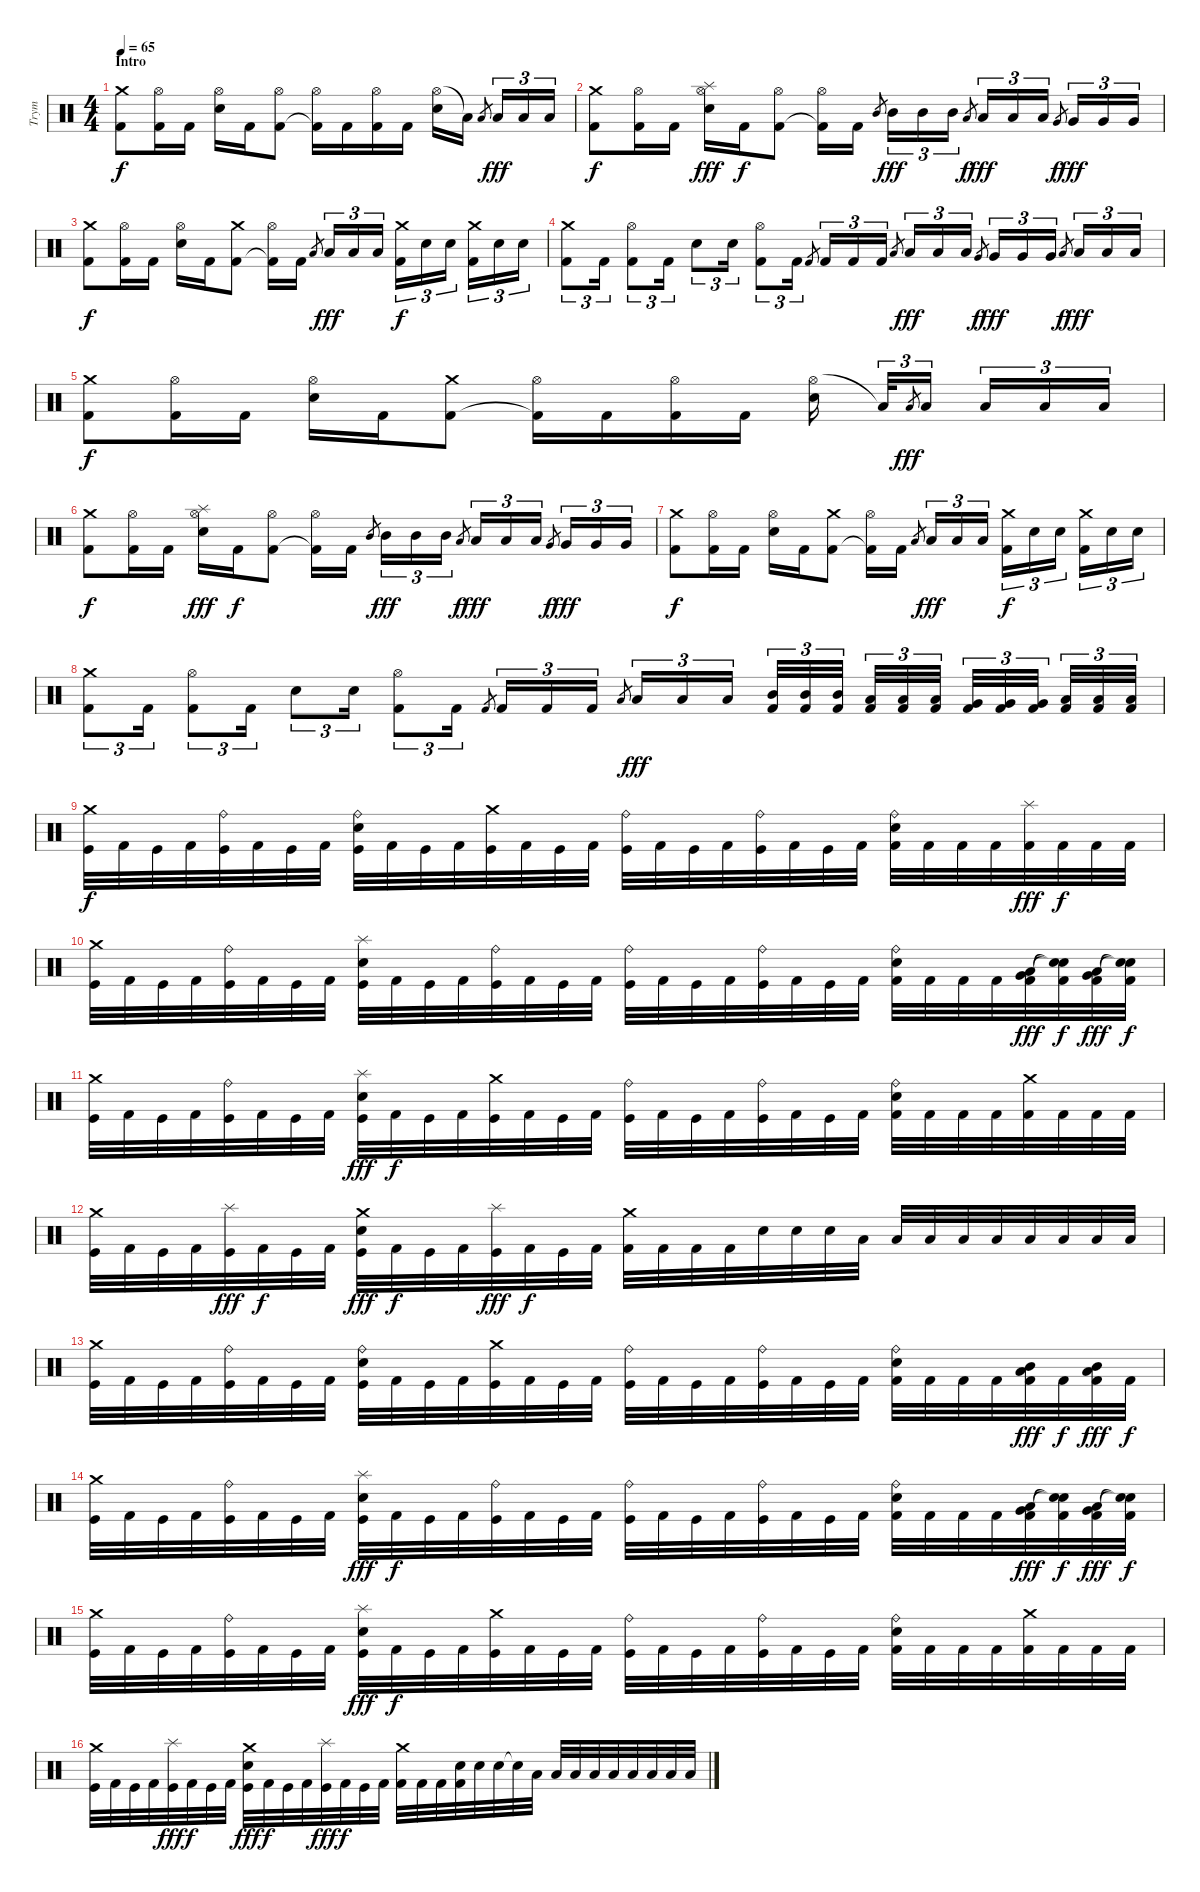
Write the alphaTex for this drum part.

\track ("Trym" "Trym") {instrument percussion}
\staff {score}
\articulation defaults
\ts (4 4)
\section ("" "Intro")
\tempo 65
\clef neutral
\ks c
("Crash medium (hit)" "Kick (hit) 2").8{dy f} ("Hi-Hat (open)" "Kick (hit) 2").16 "Kick (hit) 2".16 ("Hi-Hat (open)" "Electric Snare (hit)").16 "Kick (hit) 2".16 ("Hi-Hat (open)" "Kick (hit) 2").8 ("Hi-Hat (open)" "Kick (hit) 2"{t}).16 "Kick (hit) 2".16 ("Hi-Hat (open)" "Kick (hit) 2").16 "Kick (hit) 2".16 ("Hi-Hat (open)" "Electric Snare (hit)").16 "Low Tom (hit)"{t}.16 "Low Tom (hit)".8{gr} "Low Tom (hit)".16{tu (3 2) dy fff} "Low Tom (hit)".16{tu (3 2)} "Low Tom (hit)".16{tu (3 2)} |
("Crash medium (hit)" "Kick (hit) 2").8{dy f} ("Hi-Hat (open)" "Kick (hit) 2").16 "Kick (hit) 2".16 ("Splash (hit)" "Hi-Hat (open)" "Electric Snare (hit)").16{dy fff} "Kick (hit) 2".16{dy f} ("Hi-Hat (open)" "Kick (hit) 2").8 ("Hi-Hat (open)" "Kick (hit) 2"{t}).16 "Kick (hit) 2".16 "Mid Tom (hit)".8{gr} "Mid Tom (hit)".16{tu (3 2) dy fff} "Mid Tom (hit)".16{tu (3 2)} "Mid Tom (hit)".16{tu (3 2)} "Low Tom (hit)".8{gr dy f} "Low Tom (hit)".16{tu (3 2) dy fff} "Low Tom (hit)".16{tu (3 2)} "Low Tom (hit)".16{tu (3 2)} "Very Low Tom (hit)".8{gr dy f} "Very Low Tom (hit)".16{tu (3 2) dy fff} "Very Low Tom (hit)".16{tu (3 2)} "Very Low Tom (hit)".16{tu (3 2)} |
("Crash medium (hit)" "Kick (hit) 2").8{dy f} ("Hi-Hat (open)" "Kick (hit) 2").16 "Kick (hit) 2".16 ("Hi-Hat (open)" "Electric Snare (hit)").16 "Kick (hit) 2".16 ("Crash medium (hit)" "Kick (hit) 2").8 ("Hi-Hat (open)" "Kick (hit) 2"{t}).16 "Kick (hit) 2".16 "Low Tom (hit)".8{gr} "Low Tom (hit)".16{tu (3 2) dy fff} "Low Tom (hit)".16{tu (3 2)} "Low Tom (hit)".16{tu (3 2)} ("Crash medium (hit)" "Kick (hit) 2").16{tu (3 2) dy f} "Snare (hit) 2".16{tu (3 2)} "Snare (hit) 2".16{tu (3 2)} ("Crash medium (hit)" "Kick (hit) 2").16{tu (3 2)} "Snare (hit) 2".16{tu (3 2)} "Snare (hit) 2".16{tu (3 2)} |
("Crash medium (hit)" "Kick (hit) 2").8{tu (3 2)} "Kick (hit) 2".16{tu (3 2)} ("Hi-Hat (open)" "Kick (hit) 2").8{tu (3 2)} "Kick (hit) 2".16{tu (3 2)} "Snare (hit) 2".8{tu (3 2)} "Snare (hit) 2".16{tu (3 2)} ("Hi-Hat (open)" "Kick (hit) 2").8{tu (3 2)} "Kick (hit) 2".16{tu (3 2)} "Kick (hit) 2".8{gr} "Kick (hit) 2".16{tu (3 2)} "Kick (hit) 2".16{tu (3 2)} "Kick (hit) 2".16{tu (3 2)} "Low Tom (hit)".8{gr} "Low Tom (hit)".16{tu (3 2) dy fff} "Low Tom (hit)".16{tu (3 2)} "Low Tom (hit)".16{tu (3 2)} "Very Low Tom (hit)".8{gr dy f} "Very Low Tom (hit)".16{tu (3 2) dy fff} "Very Low Tom (hit)".16{tu (3 2)} "Very Low Tom (hit)".16{tu (3 2)} "Low Floor Tom (hit)".8{gr dy f} "Low Floor Tom (hit)".16{tu (3 2) dy fff} "Low Floor Tom (hit)".16{tu (3 2)} "Low Floor Tom (hit)".16{tu (3 2)} |
("Crash medium (hit)" "Kick (hit) 2").8{dy f} ("Hi-Hat (open)" "Kick (hit) 2").16 "Kick (hit) 2".16 ("Hi-Hat (open)" "Electric Snare (hit)").16 "Kick (hit) 2".16 ("Crash medium (hit)" "Kick (hit) 2").8 ("Hi-Hat (open)" "Kick (hit) 2"{t}).16 "Kick (hit) 2".16 ("Hi-Hat (open)" "Kick (hit) 2").16 "Kick (hit) 2".16 ("Hi-Hat (open)" "Electric Snare (hit)").16 "Low Tom (hit)"{t}.32{tu (3 2)} "Low Tom (hit)".8{gr dy fff} "Low Tom (hit)".16{tu (3 2)} "Low Tom (hit)".16{tu (3 2)} "Low Tom (hit)".16{tu (3 2)} "Low Tom (hit)".16{tu (3 2)} |
("Crash medium (hit)" "Kick (hit) 2").8{dy f} ("Hi-Hat (open)" "Kick (hit) 2").16 "Kick (hit) 2".16 ("Splash (hit)" "Hi-Hat (open)" "Electric Snare (hit)").16{dy fff} "Kick (hit) 2".16{dy f} ("Hi-Hat (open)" "Kick (hit) 2").8 ("Hi-Hat (open)" "Kick (hit) 2"{t}).16 "Kick (hit) 2".16 "Mid Tom (hit)".8{gr} "Mid Tom (hit)".16{tu (3 2) dy fff} "Mid Tom (hit)".16{tu (3 2)} "Mid Tom (hit)".16{tu (3 2)} "Low Tom (hit)".8{gr dy f} "Low Tom (hit)".16{tu (3 2) dy fff} "Low Tom (hit)".16{tu (3 2)} "Low Tom (hit)".16{tu (3 2)} "Very Low Tom (hit)".8{gr dy f} "Very Low Tom (hit)".16{tu (3 2) dy fff} "Very Low Tom (hit)".16{tu (3 2)} "Very Low Tom (hit)".16{tu (3 2)} |
("Crash medium (hit)" "Kick (hit) 2").8{dy f} ("Hi-Hat (open)" "Kick (hit) 2").16 "Kick (hit) 2".16 ("Hi-Hat (open)" "Electric Snare (hit)").16 "Kick (hit) 2".16 ("Crash medium (hit)" "Kick (hit) 2").8 ("Hi-Hat (open)" "Kick (hit) 2"{t}).16 "Kick (hit) 2".16 "Low Tom (hit)".8{gr} "Low Tom (hit)".16{tu (3 2) dy fff} "Low Tom (hit)".16{tu (3 2)} "Low Tom (hit)".16{tu (3 2)} ("Crash medium (hit)" "Kick (hit) 2").16{tu (3 2) dy f} "Snare (hit) 2".16{tu (3 2)} "Snare (hit) 2".16{tu (3 2)} ("Crash medium (hit)" "Kick (hit) 2").16{tu (3 2)} "Snare (hit) 2".16{tu (3 2)} "Snare (hit) 2".16{tu (3 2)} |
("Crash medium (hit)" "Kick (hit) 2").8{tu (3 2)} "Kick (hit) 2".16{tu (3 2)} ("Hi-Hat (open)" "Kick (hit) 2").8{tu (3 2)} "Kick (hit) 2".16{tu (3 2)} "Snare (hit) 2".8{tu (3 2)} "Snare (hit) 2".16{tu (3 2)} ("Hi-Hat (open)" "Kick (hit) 2").8{tu (3 2)} "Kick (hit) 2".16{tu (3 2)} "Kick (hit) 2".8{gr} "Kick (hit) 2".16{tu (3 2)} "Kick (hit) 2".16{tu (3 2)} "Kick (hit) 2".16{tu (3 2)} "Low Tom (hit)".8{gr} "Low Tom (hit)".16{tu (3 2) dy fff} "Low Tom (hit)".16{tu (3 2)} "Low Tom (hit)".16{tu (3 2)} ("Mid Tom (hit)" "Kick (hit) 2").32{tu (3 2)} ("Mid Tom (hit)" "Kick (hit) 2").32{tu (3 2)} ("Mid Tom (hit)" "Kick (hit) 2").32{tu (3 2)} ("Low Tom (hit)" "Kick (hit) 2").32{tu (3 2)} ("Low Tom (hit)" "Kick (hit) 2").32{tu (3 2)} ("Low Tom (hit)" "Kick (hit) 2").32{tu (3 2)} ("Very Low Tom (hit)" "Kick (hit) 2").32{tu (3 2)} ("Very Low Tom (hit)" "Kick (hit) 2").32{tu (3 2)} ("Very Low Tom (hit)" "Kick (hit) 2").32{tu (3 2)} ("Low Floor Tom (hit)" "Kick (hit) 2").32{tu (3 2)} ("Low Floor Tom (hit)" "Kick (hit) 2").32{tu (3 2)} ("Low Floor Tom (hit)" "Kick (hit) 2").32{tu (3 2)} |
("Crash medium (hit)" "Kick (hit)").32{dy f} "Kick (hit) 2".32 "Kick (hit)".32 "Kick (hit) 2".32 ("Ride (bell)" "Kick (hit)").32 "Kick (hit) 2".32 "Kick (hit)".32 "Kick (hit) 2".32 ("Ride (bell)" "Electric Snare (hit)" "Kick (hit)").32 "Kick (hit) 2".32 "Kick (hit)".32 "Kick (hit) 2".32 ("Crash medium (hit)" "Kick (hit)").32 "Kick (hit) 2".32 "Kick (hit)".32 "Kick (hit) 2".32 ("Ride (bell)" "Kick (hit)").32 "Kick (hit) 2".32 "Kick (hit)".32 "Kick (hit) 2".32 ("Ride (bell)" "Kick (hit)").32 "Kick (hit) 2".32 "Kick (hit)".32 "Kick (hit) 2".32 ("Ride (bell)" "Electric Snare (hit)" "Kick (hit) 2").32 "Kick (hit) 2".32 "Kick (hit) 2".32 "Kick (hit) 2".32 ("Splash (hit)" "Kick (hit) 2").32{dy fff} "Kick (hit) 2".32{dy f} "Kick (hit) 2".32 "Kick (hit) 2".32 |
("Crash medium (hit)" "Kick (hit)").32 "Kick (hit) 2".32 "Kick (hit)".32 "Kick (hit) 2".32 ("Ride (bell)" "Kick (hit)").32 "Kick (hit) 2".32 "Kick (hit)".32 "Kick (hit) 2".32 ("Splash (hit)" "Electric Snare (hit)" "Kick (hit)").32 "Kick (hit) 2".32 "Kick (hit)".32 "Kick (hit) 2".32 ("Ride (bell)" "Kick (hit)").32 "Kick (hit) 2".32 "Kick (hit)".32 "Kick (hit) 2".32 ("Ride (bell)" "Kick (hit)").32 "Kick (hit) 2".32 "Kick (hit)".32 "Kick (hit) 2".32 ("Ride (bell)" "Kick (hit)").32 "Kick (hit) 2".32 "Kick (hit)".32 "Kick (hit) 2".32 ("Ride (bell)" "Electric Snare (hit)" "Kick (hit) 2").32 "Kick (hit) 2".32 "Kick (hit) 2".32 "Kick (hit) 2".32 ("Very Low Tom (hit)" "Low Tom (hit)" "Kick (hit) 2").32{dy fff} ("Snare (hit)"{t} "Snare (hit)"{t} "Kick (hit) 2").32{dy f} ("Low Tom (hit)" "Very Low Tom (hit)" "Kick (hit) 2").32{dy fff} ("Snare (hit)"{t} "Snare (hit)"{t} "Kick (hit) 2").32{dy f} |
("Crash medium (hit)" "Kick (hit)").32 "Kick (hit) 2".32 "Kick (hit)".32 "Kick (hit) 2".32 ("Ride (bell)" "Kick (hit)").32 "Kick (hit) 2".32 "Kick (hit)".32 "Kick (hit) 2".32 ("Splash (hit)" "Electric Snare (hit)" "Kick (hit)").32{dy fff} "Kick (hit) 2".32{dy f} "Kick (hit)".32 "Kick (hit) 2".32 ("Crash medium (hit)" "Kick (hit)").32 "Kick (hit) 2".32 "Kick (hit)".32 "Kick (hit) 2".32 ("Ride (bell)" "Kick (hit)").32 "Kick (hit) 2".32 "Kick (hit)".32 "Kick (hit) 2".32 ("Ride (bell)" "Kick (hit)").32 "Kick (hit) 2".32 "Kick (hit)".32 "Kick (hit) 2".32 ("Ride (bell)" "Electric Snare (hit)" "Kick (hit) 2").32 "Kick (hit) 2".32 "Kick (hit) 2".32 "Kick (hit) 2".32 ("Crash medium (hit)" "Kick (hit) 2").32 "Kick (hit) 2".32 "Kick (hit) 2".32 "Kick (hit) 2".32 |
("Crash medium (hit)" "Kick (hit)").32 "Kick (hit) 2".32 "Kick (hit)".32 "Kick (hit) 2".32 ("Splash (hit)" "Kick (hit)").32{dy fff} "Kick (hit) 2".32{dy f} "Kick (hit)".32 "Kick (hit) 2".32 ("Crash medium (hit)" "Electric Snare (hit)" "Kick (hit)").32{dy fff} "Kick (hit) 2".32{dy f} "Kick (hit)".32 "Kick (hit) 2".32 ("Splash (hit)" "Kick (hit)").32{dy fff} "Kick (hit) 2".32{dy f} "Kick (hit)".32 "Kick (hit) 2".32 ("Crash medium (hit)" "Kick (hit) 2").32 "Kick (hit) 2".32 "Kick (hit) 2".32 "Kick (hit) 2".32 "Electric Snare (hit)".32 "Electric Snare (hit)".32 "Electric Snare (hit)".32 "Low Tom (hit)".32 "Low Tom (hit)".32 "Low Tom (hit)".32 "Low Tom (hit)".32 "Low Tom (hit)".32 "Low Tom (hit)".32 "Low Tom (hit)".32 "Low Tom (hit)".32 "Low Tom (hit)".32 |
("Crash medium (hit)" "Kick (hit)").32 "Kick (hit) 2".32 "Kick (hit)".32 "Kick (hit) 2".32 ("Ride (bell)" "Kick (hit)").32 "Kick (hit) 2".32 "Kick (hit)".32 "Kick (hit) 2".32 ("Ride (bell)" "Electric Snare (hit)" "Kick (hit)").32 "Kick (hit) 2".32 "Kick (hit)".32 "Kick (hit) 2".32 ("Crash medium (hit)" "Kick (hit)").32 "Kick (hit) 2".32 "Kick (hit)".32 "Kick (hit) 2".32 ("Ride (bell)" "Kick (hit)").32 "Kick (hit) 2".32 "Kick (hit)".32 "Kick (hit) 2".32 ("Ride (bell)" "Kick (hit)").32 "Kick (hit) 2".32 "Kick (hit)".32 "Kick (hit) 2".32 ("Ride (bell)" "Electric Snare (hit)" "Kick (hit) 2").32 "Kick (hit) 2".32 "Kick (hit) 2".32 "Kick (hit) 2".32 ("Low Tom (hit)" "Mid Tom (hit)" "Kick (hit) 2").32{dy fff} "Kick (hit) 2".32{dy f} ("Low Tom (hit)" "Mid Tom (hit)" "Kick (hit) 2").32{dy fff} "Kick (hit) 2".32{dy f} |
("Crash medium (hit)" "Kick (hit)").32 "Kick (hit) 2".32 "Kick (hit)".32 "Kick (hit) 2".32 ("Ride (bell)" "Kick (hit)").32 "Kick (hit) 2".32 "Kick (hit)".32 "Kick (hit) 2".32 ("Splash (hit)" "Electric Snare (hit)" "Kick (hit)").32{dy fff} "Kick (hit) 2".32{dy f} "Kick (hit)".32 "Kick (hit) 2".32 ("Ride (bell)" "Kick (hit)").32 "Kick (hit) 2".32 "Kick (hit)".32 "Kick (hit) 2".32 ("Ride (bell)" "Kick (hit)").32 "Kick (hit) 2".32 "Kick (hit)".32 "Kick (hit) 2".32 ("Ride (bell)" "Kick (hit)").32 "Kick (hit) 2".32 "Kick (hit)".32 "Kick (hit) 2".32 ("Ride (bell)" "Electric Snare (hit)" "Kick (hit) 2").32 "Kick (hit) 2".32 "Kick (hit) 2".32 "Kick (hit) 2".32 ("Very Low Tom (hit)" "Low Tom (hit)" "Kick (hit) 2").32{dy fff} ("Snare (hit)"{t} "Snare (hit)"{t} "Kick (hit) 2").32{dy f} ("Low Tom (hit)" "Very Low Tom (hit)" "Kick (hit) 2").32{dy fff} ("Snare (hit)"{t} "Snare (hit)"{t} "Kick (hit) 2").32{dy f} |
("Crash medium (hit)" "Kick (hit)").32 "Kick (hit) 2".32 "Kick (hit)".32 "Kick (hit) 2".32 ("Ride (bell)" "Kick (hit)").32 "Kick (hit) 2".32 "Kick (hit)".32 "Kick (hit) 2".32 ("Splash (hit)" "Electric Snare (hit)" "Kick (hit)").32{dy fff} "Kick (hit) 2".32{dy f} "Kick (hit)".32 "Kick (hit) 2".32 ("Crash medium (hit)" "Kick (hit)").32 "Kick (hit) 2".32 "Kick (hit)".32 "Kick (hit) 2".32 ("Ride (bell)" "Kick (hit)").32 "Kick (hit) 2".32 "Kick (hit)".32 "Kick (hit) 2".32 ("Ride (bell)" "Kick (hit)").32 "Kick (hit) 2".32 "Kick (hit)".32 "Kick (hit) 2".32 ("Ride (bell)" "Electric Snare (hit)" "Kick (hit) 2").32 "Kick (hit) 2".32 "Kick (hit) 2".32 "Kick (hit) 2".32 ("Crash medium (hit)" "Kick (hit) 2").32 "Kick (hit) 2".32 "Kick (hit) 2".32 "Kick (hit) 2".32 |
("Crash medium (hit)" "Kick (hit)").32 "Kick (hit) 2".32 "Kick (hit)".32 "Kick (hit) 2".32 ("Splash (hit)" "Kick (hit)").32{dy fff} "Kick (hit) 2".32{dy f} "Kick (hit)".32 "Kick (hit) 2".32 ("Crash medium (hit)" "Electric Snare (hit)" "Kick (hit)").32{dy fff} "Kick (hit) 2".32{dy f} "Kick (hit)".32 "Kick (hit) 2".32 ("Splash (hit)" "Kick (hit)").32{dy fff} "Kick (hit) 2".32{dy f} "Kick (hit)".32 "Kick (hit) 2".32 ("Crash medium (hit)" "Kick (hit) 2").32 "Kick (hit) 2".32 "Kick (hit) 2".32 ("Electric Snare (hit)" "Kick (hit) 2").32 "Electric Snare (hit)".32 "Electric Snare (hit)".32 "Electric Snare (hit)"{t}.32 "Low Tom (hit)".32 "Low Tom (hit)".32 "Low Tom (hit)".32 "Low Tom (hit)".32 "Low Tom (hit)".32 "Low Tom (hit)".32 "Low Tom (hit)".32 "Low Tom (hit)".32 "Low Tom (hit)".32
